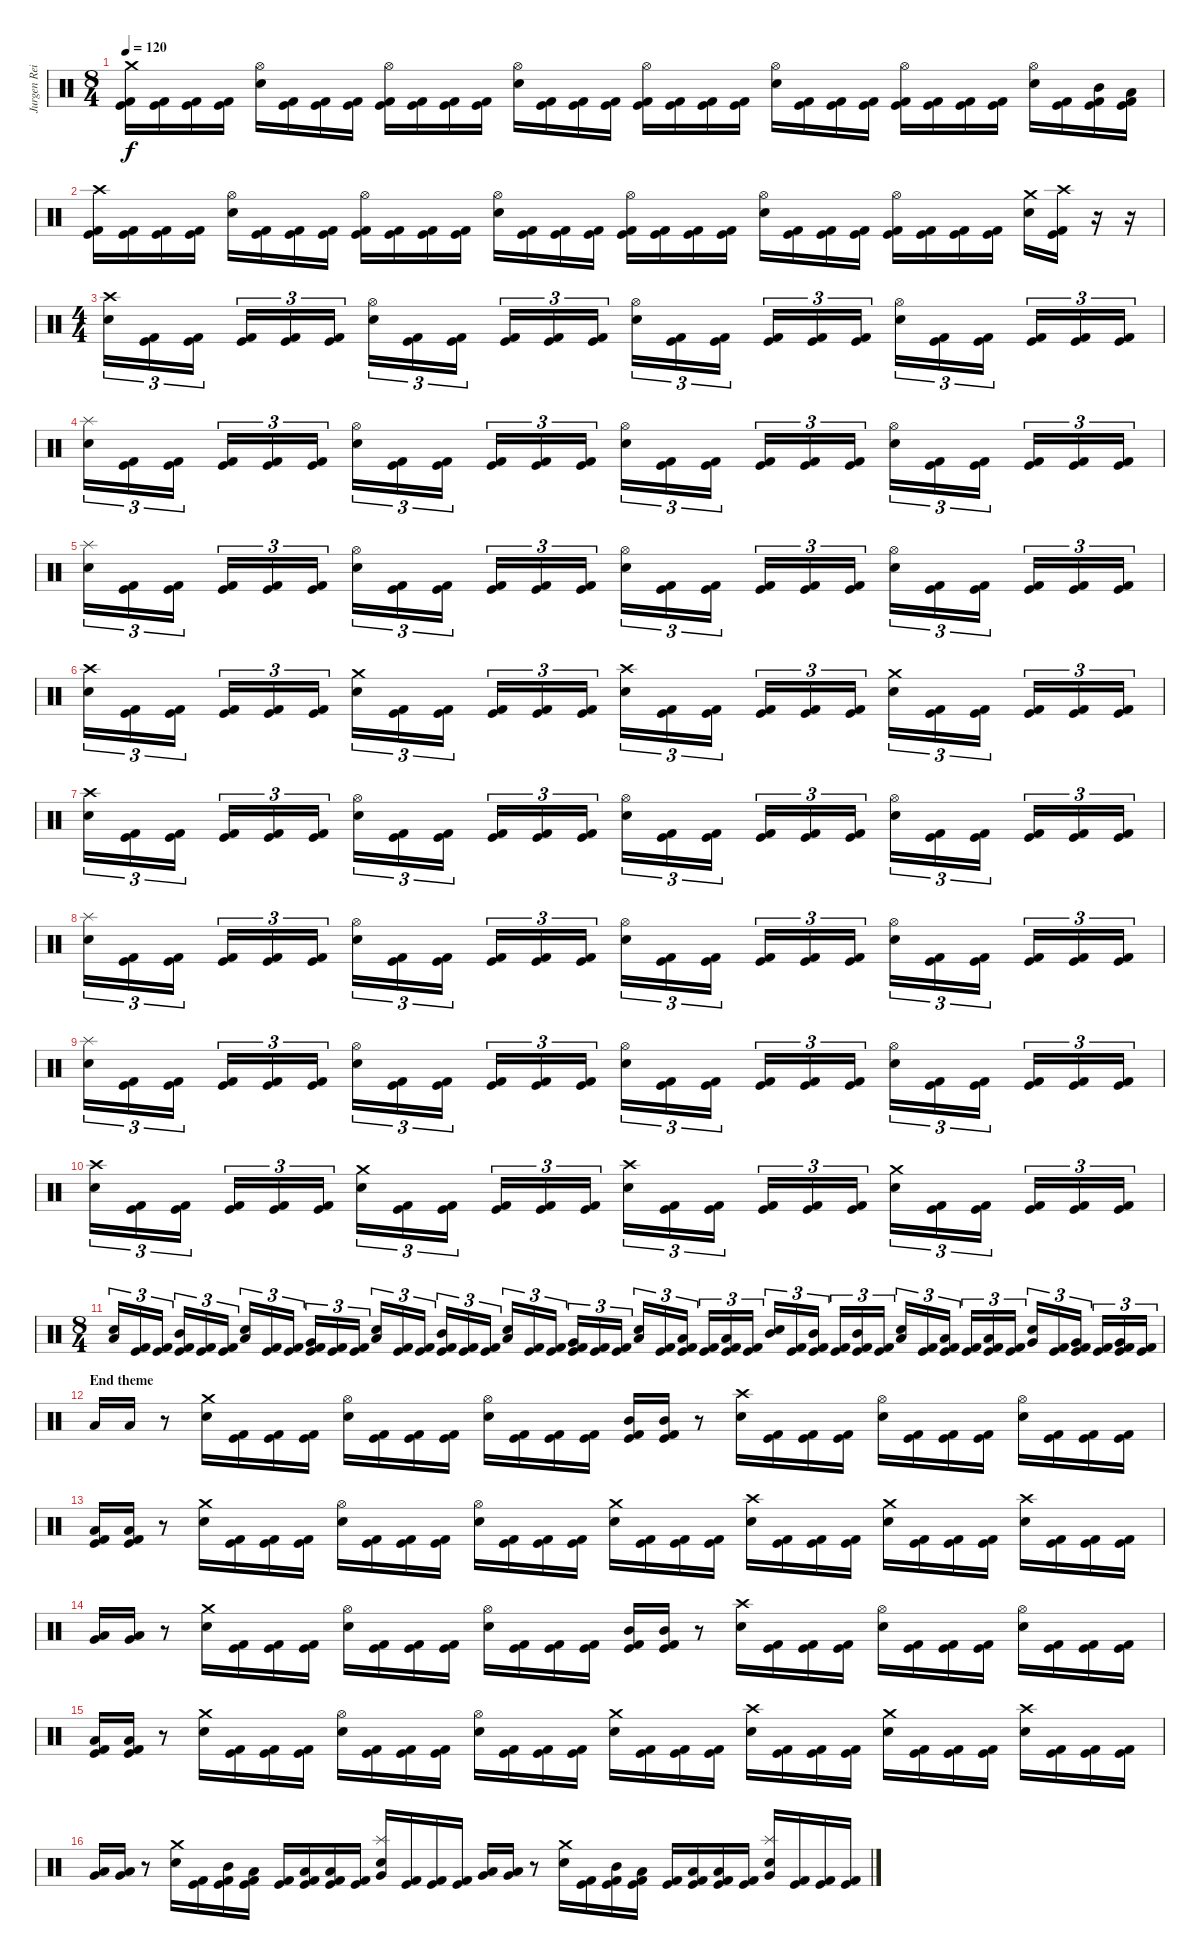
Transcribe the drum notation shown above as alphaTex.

\track ("Jurgen Reil" "Jurgen Rei") {instrument percussion}
\staff {score}
\articulation defaults
\ts (8 4)
\tempo 120
\clef neutral
\ks c
("Crash medium (hit)" "Kick (hit)" "Kick (hit) 2").16{dy f} ("Kick (hit)" "Kick (hit) 2").16 ("Kick (hit)" "Kick (hit) 2").16 ("Kick (hit)" "Kick (hit) 2").16 ("Hi-Hat (open)" "Electric Snare (hit)").16 ("Kick (hit)" "Kick (hit) 2").16 ("Kick (hit)" "Kick (hit) 2").16 ("Kick (hit)" "Kick (hit) 2").16 ("Hi-Hat (open)" "Kick (hit)" "Kick (hit) 2").16 ("Kick (hit)" "Kick (hit) 2").16 ("Kick (hit)" "Kick (hit) 2").16 ("Kick (hit)" "Kick (hit) 2").16 ("Hi-Hat (open)" "Electric Snare (hit)").16 ("Kick (hit)" "Kick (hit) 2").16 ("Kick (hit)" "Kick (hit) 2").16 ("Kick (hit)" "Kick (hit) 2").16 ("Hi-Hat (open)" "Kick (hit)" "Kick (hit) 2").16 ("Kick (hit)" "Kick (hit) 2").16 ("Kick (hit)" "Kick (hit) 2").16 ("Kick (hit)" "Kick (hit) 2").16 ("Hi-Hat (open)" "Electric Snare (hit)").16 ("Kick (hit)" "Kick (hit) 2").16 ("Kick (hit)" "Kick (hit) 2").16 ("Kick (hit)" "Kick (hit) 2").16 ("Hi-Hat (open)" "Kick (hit)" "Kick (hit) 2").16 ("Kick (hit)" "Kick (hit) 2").16 ("Kick (hit)" "Kick (hit) 2").16 ("Kick (hit)" "Kick (hit) 2").16 ("Hi-Hat (open)" "Electric Snare (hit)").16 ("Kick (hit)" "Kick (hit) 2").16 ("Mid Tom (hit)" "Kick (hit)" "Kick (hit) 2").16 ("Low Tom (hit)" "Kick (hit)" "Kick (hit) 2").16 |
("Crash high (hit)" "Kick (hit)" "Kick (hit) 2").16 ("Kick (hit)" "Kick (hit) 2").16 ("Kick (hit)" "Kick (hit) 2").16 ("Kick (hit)" "Kick (hit) 2").16 ("Hi-Hat (open)" "Electric Snare (hit)").16 ("Kick (hit)" "Kick (hit) 2").16 ("Kick (hit)" "Kick (hit) 2").16 ("Kick (hit)" "Kick (hit) 2").16 ("Hi-Hat (open)" "Kick (hit)" "Kick (hit) 2").16 ("Kick (hit)" "Kick (hit) 2").16 ("Kick (hit)" "Kick (hit) 2").16 ("Kick (hit)" "Kick (hit) 2").16 ("Hi-Hat (open)" "Electric Snare (hit)").16 ("Kick (hit)" "Kick (hit) 2").16 ("Kick (hit)" "Kick (hit) 2").16 ("Kick (hit)" "Kick (hit) 2").16 ("Hi-Hat (open)" "Kick (hit)" "Kick (hit) 2").16 ("Kick (hit)" "Kick (hit) 2").16 ("Kick (hit)" "Kick (hit) 2").16 ("Kick (hit)" "Kick (hit) 2").16 ("Hi-Hat (open)" "Electric Snare (hit)").16 ("Kick (hit)" "Kick (hit) 2").16 ("Kick (hit)" "Kick (hit) 2").16 ("Kick (hit)" "Kick (hit) 2").16 ("Hi-Hat (open)" "Kick (hit)" "Kick (hit) 2").16 ("Kick (hit)" "Kick (hit) 2").16 ("Kick (hit)" "Kick (hit) 2").16 ("Kick (hit)" "Kick (hit) 2").16 ("Crash medium (hit)" "Electric Snare (hit)").16 ("Crash high (hit)" "Kick (hit)" "Kick (hit) 2").16 r.16 r.16 |
\ts (4 4)
("Crash high (hit)" "Electric Snare (hit)").16{tu (3 2)} ("Kick (hit)" "Kick (hit) 2").16{tu (3 2)} ("Kick (hit)" "Kick (hit) 2").16{tu (3 2)} ("Kick (hit)" "Kick (hit) 2").16{tu (3 2)} ("Kick (hit)" "Kick (hit) 2").16{tu (3 2)} ("Kick (hit)" "Kick (hit) 2").16{tu (3 2)} ("Hi-Hat (open)" "Electric Snare (hit)").16{tu (3 2)} ("Kick (hit)" "Kick (hit) 2").16{tu (3 2)} ("Kick (hit)" "Kick (hit) 2").16{tu (3 2)} ("Kick (hit)" "Kick (hit) 2").16{tu (3 2)} ("Kick (hit)" "Kick (hit) 2").16{tu (3 2)} ("Kick (hit)" "Kick (hit) 2").16{tu (3 2)} ("Hi-Hat (open)" "Electric Snare (hit)").16{tu (3 2)} ("Kick (hit)" "Kick (hit) 2").16{tu (3 2)} ("Kick (hit)" "Kick (hit) 2").16{tu (3 2)} ("Kick (hit)" "Kick (hit) 2").16{tu (3 2)} ("Kick (hit)" "Kick (hit) 2").16{tu (3 2)} ("Kick (hit)" "Kick (hit) 2").16{tu (3 2)} ("Hi-Hat (open)" "Electric Snare (hit)").16{tu (3 2)} ("Kick (hit)" "Kick (hit) 2").16{tu (3 2)} ("Kick (hit)" "Kick (hit) 2").16{tu (3 2)} ("Kick (hit)" "Kick (hit) 2").16{tu (3 2)} ("Kick (hit)" "Kick (hit) 2").16{tu (3 2)} ("Kick (hit)" "Kick (hit) 2").16{tu (3 2)} |
("Splash (hit)" "Electric Snare (hit)").16{tu (3 2)} ("Kick (hit)" "Kick (hit) 2").16{tu (3 2)} ("Kick (hit)" "Kick (hit) 2").16{tu (3 2)} ("Kick (hit)" "Kick (hit) 2").16{tu (3 2)} ("Kick (hit)" "Kick (hit) 2").16{tu (3 2)} ("Kick (hit)" "Kick (hit) 2").16{tu (3 2)} ("Hi-Hat (open)" "Electric Snare (hit)").16{tu (3 2)} ("Kick (hit)" "Kick (hit) 2").16{tu (3 2)} ("Kick (hit)" "Kick (hit) 2").16{tu (3 2)} ("Kick (hit)" "Kick (hit) 2").16{tu (3 2)} ("Kick (hit)" "Kick (hit) 2").16{tu (3 2)} ("Kick (hit)" "Kick (hit) 2").16{tu (3 2)} ("Hi-Hat (open)" "Electric Snare (hit)").16{tu (3 2)} ("Kick (hit)" "Kick (hit) 2").16{tu (3 2)} ("Kick (hit)" "Kick (hit) 2").16{tu (3 2)} ("Kick (hit)" "Kick (hit) 2").16{tu (3 2)} ("Kick (hit)" "Kick (hit) 2").16{tu (3 2)} ("Kick (hit)" "Kick (hit) 2").16{tu (3 2)} ("Hi-Hat (open)" "Electric Snare (hit)").16{tu (3 2)} ("Kick (hit)" "Kick (hit) 2").16{tu (3 2)} ("Kick (hit)" "Kick (hit) 2").16{tu (3 2)} ("Kick (hit)" "Kick (hit) 2").16{tu (3 2)} ("Kick (hit)" "Kick (hit) 2").16{tu (3 2)} ("Kick (hit)" "Kick (hit) 2").16{tu (3 2)} |
("Splash (hit)" "Electric Snare (hit)").16{tu (3 2)} ("Kick (hit)" "Kick (hit) 2").16{tu (3 2)} ("Kick (hit)" "Kick (hit) 2").16{tu (3 2)} ("Kick (hit)" "Kick (hit) 2").16{tu (3 2)} ("Kick (hit)" "Kick (hit) 2").16{tu (3 2)} ("Kick (hit)" "Kick (hit) 2").16{tu (3 2)} ("Hi-Hat (open)" "Electric Snare (hit)").16{tu (3 2)} ("Kick (hit)" "Kick (hit) 2").16{tu (3 2)} ("Kick (hit)" "Kick (hit) 2").16{tu (3 2)} ("Kick (hit)" "Kick (hit) 2").16{tu (3 2)} ("Kick (hit)" "Kick (hit) 2").16{tu (3 2)} ("Kick (hit)" "Kick (hit) 2").16{tu (3 2)} ("Hi-Hat (open)" "Electric Snare (hit)").16{tu (3 2)} ("Kick (hit)" "Kick (hit) 2").16{tu (3 2)} ("Kick (hit)" "Kick (hit) 2").16{tu (3 2)} ("Kick (hit)" "Kick (hit) 2").16{tu (3 2)} ("Kick (hit)" "Kick (hit) 2").16{tu (3 2)} ("Kick (hit)" "Kick (hit) 2").16{tu (3 2)} ("Hi-Hat (open)" "Electric Snare (hit)").16{tu (3 2)} ("Kick (hit)" "Kick (hit) 2").16{tu (3 2)} ("Kick (hit)" "Kick (hit) 2").16{tu (3 2)} ("Kick (hit)" "Kick (hit) 2").16{tu (3 2)} ("Kick (hit)" "Kick (hit) 2").16{tu (3 2)} ("Kick (hit)" "Kick (hit) 2").16{tu (3 2)} |
("Crash high (hit)" "Electric Snare (hit)").16{tu (3 2)} ("Kick (hit)" "Kick (hit) 2").16{tu (3 2)} ("Kick (hit)" "Kick (hit) 2").16{tu (3 2)} ("Kick (hit)" "Kick (hit) 2").16{tu (3 2)} ("Kick (hit)" "Kick (hit) 2").16{tu (3 2)} ("Kick (hit)" "Kick (hit) 2").16{tu (3 2)} ("Crash medium (hit)" "Electric Snare (hit)").16{tu (3 2)} ("Kick (hit)" "Kick (hit) 2").16{tu (3 2)} ("Kick (hit)" "Kick (hit) 2").16{tu (3 2)} ("Kick (hit)" "Kick (hit) 2").16{tu (3 2)} ("Kick (hit)" "Kick (hit) 2").16{tu (3 2)} ("Kick (hit)" "Kick (hit) 2").16{tu (3 2)} ("Crash high (hit)" "Electric Snare (hit)").16{tu (3 2)} ("Kick (hit)" "Kick (hit) 2").16{tu (3 2)} ("Kick (hit)" "Kick (hit) 2").16{tu (3 2)} ("Kick (hit)" "Kick (hit) 2").16{tu (3 2)} ("Kick (hit)" "Kick (hit) 2").16{tu (3 2)} ("Kick (hit)" "Kick (hit) 2").16{tu (3 2)} ("Crash medium (hit)" "Electric Snare (hit)").16{tu (3 2)} ("Kick (hit)" "Kick (hit) 2").16{tu (3 2)} ("Kick (hit)" "Kick (hit) 2").16{tu (3 2)} ("Kick (hit)" "Kick (hit) 2").16{tu (3 2)} ("Kick (hit)" "Kick (hit) 2").16{tu (3 2)} ("Kick (hit)" "Kick (hit) 2").16{tu (3 2)} |
("Crash high (hit)" "Electric Snare (hit)").16{tu (3 2)} ("Kick (hit)" "Kick (hit) 2").16{tu (3 2)} ("Kick (hit)" "Kick (hit) 2").16{tu (3 2)} ("Kick (hit)" "Kick (hit) 2").16{tu (3 2)} ("Kick (hit)" "Kick (hit) 2").16{tu (3 2)} ("Kick (hit)" "Kick (hit) 2").16{tu (3 2)} ("Hi-Hat (open)" "Electric Snare (hit)").16{tu (3 2)} ("Kick (hit)" "Kick (hit) 2").16{tu (3 2)} ("Kick (hit)" "Kick (hit) 2").16{tu (3 2)} ("Kick (hit)" "Kick (hit) 2").16{tu (3 2)} ("Kick (hit)" "Kick (hit) 2").16{tu (3 2)} ("Kick (hit)" "Kick (hit) 2").16{tu (3 2)} ("Hi-Hat (open)" "Electric Snare (hit)").16{tu (3 2)} ("Kick (hit)" "Kick (hit) 2").16{tu (3 2)} ("Kick (hit)" "Kick (hit) 2").16{tu (3 2)} ("Kick (hit)" "Kick (hit) 2").16{tu (3 2)} ("Kick (hit)" "Kick (hit) 2").16{tu (3 2)} ("Kick (hit)" "Kick (hit) 2").16{tu (3 2)} ("Hi-Hat (open)" "Electric Snare (hit)").16{tu (3 2)} ("Kick (hit)" "Kick (hit) 2").16{tu (3 2)} ("Kick (hit)" "Kick (hit) 2").16{tu (3 2)} ("Kick (hit)" "Kick (hit) 2").16{tu (3 2)} ("Kick (hit)" "Kick (hit) 2").16{tu (3 2)} ("Kick (hit)" "Kick (hit) 2").16{tu (3 2)} |
("Splash (hit)" "Electric Snare (hit)").16{tu (3 2)} ("Kick (hit)" "Kick (hit) 2").16{tu (3 2)} ("Kick (hit)" "Kick (hit) 2").16{tu (3 2)} ("Kick (hit)" "Kick (hit) 2").16{tu (3 2)} ("Kick (hit)" "Kick (hit) 2").16{tu (3 2)} ("Kick (hit)" "Kick (hit) 2").16{tu (3 2)} ("Hi-Hat (open)" "Electric Snare (hit)").16{tu (3 2)} ("Kick (hit)" "Kick (hit) 2").16{tu (3 2)} ("Kick (hit)" "Kick (hit) 2").16{tu (3 2)} ("Kick (hit)" "Kick (hit) 2").16{tu (3 2)} ("Kick (hit)" "Kick (hit) 2").16{tu (3 2)} ("Kick (hit)" "Kick (hit) 2").16{tu (3 2)} ("Hi-Hat (open)" "Electric Snare (hit)").16{tu (3 2)} ("Kick (hit)" "Kick (hit) 2").16{tu (3 2)} ("Kick (hit)" "Kick (hit) 2").16{tu (3 2)} ("Kick (hit)" "Kick (hit) 2").16{tu (3 2)} ("Kick (hit)" "Kick (hit) 2").16{tu (3 2)} ("Kick (hit)" "Kick (hit) 2").16{tu (3 2)} ("Hi-Hat (open)" "Electric Snare (hit)").16{tu (3 2)} ("Kick (hit)" "Kick (hit) 2").16{tu (3 2)} ("Kick (hit)" "Kick (hit) 2").16{tu (3 2)} ("Kick (hit)" "Kick (hit) 2").16{tu (3 2)} ("Kick (hit)" "Kick (hit) 2").16{tu (3 2)} ("Kick (hit)" "Kick (hit) 2").16{tu (3 2)} |
("Splash (hit)" "Electric Snare (hit)").16{tu (3 2)} ("Kick (hit)" "Kick (hit) 2").16{tu (3 2)} ("Kick (hit)" "Kick (hit) 2").16{tu (3 2)} ("Kick (hit)" "Kick (hit) 2").16{tu (3 2)} ("Kick (hit)" "Kick (hit) 2").16{tu (3 2)} ("Kick (hit)" "Kick (hit) 2").16{tu (3 2)} ("Hi-Hat (open)" "Electric Snare (hit)").16{tu (3 2)} ("Kick (hit)" "Kick (hit) 2").16{tu (3 2)} ("Kick (hit)" "Kick (hit) 2").16{tu (3 2)} ("Kick (hit)" "Kick (hit) 2").16{tu (3 2)} ("Kick (hit)" "Kick (hit) 2").16{tu (3 2)} ("Kick (hit)" "Kick (hit) 2").16{tu (3 2)} ("Hi-Hat (open)" "Electric Snare (hit)").16{tu (3 2)} ("Kick (hit)" "Kick (hit) 2").16{tu (3 2)} ("Kick (hit)" "Kick (hit) 2").16{tu (3 2)} ("Kick (hit)" "Kick (hit) 2").16{tu (3 2)} ("Kick (hit)" "Kick (hit) 2").16{tu (3 2)} ("Kick (hit)" "Kick (hit) 2").16{tu (3 2)} ("Hi-Hat (open)" "Electric Snare (hit)").16{tu (3 2)} ("Kick (hit)" "Kick (hit) 2").16{tu (3 2)} ("Kick (hit)" "Kick (hit) 2").16{tu (3 2)} ("Kick (hit)" "Kick (hit) 2").16{tu (3 2)} ("Kick (hit)" "Kick (hit) 2").16{tu (3 2)} ("Kick (hit)" "Kick (hit) 2").16{tu (3 2)} |
("Crash high (hit)" "Electric Snare (hit)").16{tu (3 2)} ("Kick (hit)" "Kick (hit) 2").16{tu (3 2)} ("Kick (hit)" "Kick (hit) 2").16{tu (3 2)} ("Kick (hit)" "Kick (hit) 2").16{tu (3 2)} ("Kick (hit)" "Kick (hit) 2").16{tu (3 2)} ("Kick (hit)" "Kick (hit) 2").16{tu (3 2)} ("Crash medium (hit)" "Electric Snare (hit)").16{tu (3 2)} ("Kick (hit)" "Kick (hit) 2").16{tu (3 2)} ("Kick (hit)" "Kick (hit) 2").16{tu (3 2)} ("Kick (hit)" "Kick (hit) 2").16{tu (3 2)} ("Kick (hit)" "Kick (hit) 2").16{tu (3 2)} ("Kick (hit)" "Kick (hit) 2").16{tu (3 2)} ("Crash high (hit)" "Electric Snare (hit)").16{tu (3 2)} ("Kick (hit)" "Kick (hit) 2").16{tu (3 2)} ("Kick (hit)" "Kick (hit) 2").16{tu (3 2)} ("Kick (hit)" "Kick (hit) 2").16{tu (3 2)} ("Kick (hit)" "Kick (hit) 2").16{tu (3 2)} ("Kick (hit)" "Kick (hit) 2").16{tu (3 2)} ("Crash medium (hit)" "Electric Snare (hit)").16{tu (3 2)} ("Kick (hit)" "Kick (hit) 2").16{tu (3 2)} ("Kick (hit)" "Kick (hit) 2").16{tu (3 2)} ("Kick (hit)" "Kick (hit) 2").16{tu (3 2)} ("Kick (hit)" "Kick (hit) 2").16{tu (3 2)} ("Kick (hit)" "Kick (hit) 2").16{tu (3 2)} |
\ts (8 4)
("Low Tom (hit)" "Electric Snare (hit)").16{tu (3 2)} ("Kick (hit)" "Kick (hit) 2").16{tu (3 2)} ("Kick (hit)" "Kick (hit) 2").16{tu (3 2)} ("Mid Tom (hit)" "Kick (hit)" "Kick (hit) 2").16{tu (3 2)} ("Kick (hit)" "Kick (hit) 2").16{tu (3 2)} ("Kick (hit)" "Kick (hit) 2").16{tu (3 2)} ("Low Tom (hit)" "Electric Snare (hit)").16{tu (3 2)} ("Kick (hit)" "Kick (hit) 2").16{tu (3 2)} ("Kick (hit)" "Kick (hit) 2").16{tu (3 2)} ("Very Low Tom (hit)" "Kick (hit)" "Kick (hit) 2").16{tu (3 2)} ("Kick (hit)" "Kick (hit) 2").16{tu (3 2)} ("Kick (hit)" "Kick (hit) 2").16{tu (3 2)} ("Low Tom (hit)" "Electric Snare (hit)").16{tu (3 2)} ("Kick (hit)" "Kick (hit) 2").16{tu (3 2)} ("Kick (hit)" "Kick (hit) 2").16{tu (3 2)} ("Mid Tom (hit)" "Kick (hit)" "Kick (hit) 2").16{tu (3 2)} ("Kick (hit)" "Kick (hit) 2").16{tu (3 2)} ("Kick (hit)" "Kick (hit) 2").16{tu (3 2)} ("Low Tom (hit)" "Electric Snare (hit)").16{tu (3 2)} ("Kick (hit)" "Kick (hit) 2").16{tu (3 2)} ("Kick (hit)" "Kick (hit) 2").16{tu (3 2)} ("Very Low Tom (hit)" "Kick (hit)" "Kick (hit) 2").16{tu (3 2)} ("Kick (hit)" "Kick (hit) 2").16{tu (3 2)} ("Kick (hit)" "Kick (hit) 2").16{tu (3 2)} ("Low Tom (hit)" "Electric Snare (hit)").16{tu (3 2)} ("Kick (hit)" "Kick (hit) 2").16{tu (3 2)} ("Low Tom (hit)" "Kick (hit)" "Kick (hit) 2").16{tu (3 2)} ("Kick (hit)" "Kick (hit) 2").16{tu (3 2)} ("Low Tom (hit)" "Kick (hit)" "Kick (hit) 2").16{tu (3 2)} ("Kick (hit)" "Kick (hit) 2").16{tu (3 2)} ("Mid Tom (hit)" "Electric Snare (hit)").16{tu (3 2)} ("Kick (hit)" "Kick (hit) 2").16{tu (3 2)} ("Mid Tom (hit)" "Kick (hit)" "Kick (hit) 2").16{tu (3 2)} ("Kick (hit)" "Kick (hit) 2").16{tu (3 2)} ("Mid Tom (hit)" "Kick (hit)" "Kick (hit) 2").16{tu (3 2)} ("Kick (hit)" "Kick (hit) 2").16{tu (3 2)} ("Low Tom (hit)" "Electric Snare (hit)").16{tu (3 2)} ("Kick (hit)" "Kick (hit) 2").16{tu (3 2)} ("Low Tom (hit)" "Kick (hit)" "Kick (hit) 2").16{tu (3 2)} ("Kick (hit)" "Kick (hit) 2").16{tu (3 2)} ("Low Tom (hit)" "Kick (hit)" "Kick (hit) 2").16{tu (3 2)} ("Kick (hit)" "Kick (hit) 2").16{tu (3 2)} ("Very Low Tom (hit)" "Electric Snare (hit)").16{tu (3 2)} ("Kick (hit)" "Kick (hit) 2").16{tu (3 2)} ("Very Low Tom (hit)" "Kick (hit)" "Kick (hit) 2").16{tu (3 2)} ("Kick (hit)" "Kick (hit) 2").16{tu (3 2)} ("Very Low Tom (hit)" "Kick (hit)" "Kick (hit) 2").16{tu (3 2)} ("Kick (hit)" "Kick (hit) 2").16{tu (3 2)} |
\section ("" "End theme")
"Low Tom (hit)".16 "Low Tom (hit)".16 r.8 ("Crash medium (hit)" "Electric Snare (hit)").16 ("Kick (hit)" "Kick (hit) 2").16 ("Kick (hit)" "Kick (hit) 2").16 ("Kick (hit)" "Kick (hit) 2").16 ("Hi-Hat (open)" "Electric Snare (hit)").16 ("Kick (hit)" "Kick (hit) 2").16 ("Kick (hit)" "Kick (hit) 2").16 ("Kick (hit)" "Kick (hit) 2").16 ("Hi-Hat (open)" "Electric Snare (hit)").16 ("Kick (hit)" "Kick (hit) 2").16 ("Kick (hit)" "Kick (hit) 2").16 ("Kick (hit)" "Kick (hit) 2").16 ("Mid Tom (hit)" "Kick (hit)" "Kick (hit) 2").16 ("Mid Tom (hit)" "Kick (hit)" "Kick (hit) 2").16 r.8 ("Crash high (hit)" "Electric Snare (hit)").16 ("Kick (hit)" "Kick (hit) 2").16 ("Kick (hit)" "Kick (hit) 2").16 ("Kick (hit)" "Kick (hit) 2").16 ("Hi-Hat (open)" "Electric Snare (hit)").16 ("Kick (hit)" "Kick (hit) 2").16 ("Kick (hit)" "Kick (hit) 2").16 ("Kick (hit)" "Kick (hit) 2").16 ("Hi-Hat (open)" "Electric Snare (hit)").16 ("Kick (hit)" "Kick (hit) 2").16 ("Kick (hit)" "Kick (hit) 2").16 ("Kick (hit)" "Kick (hit) 2").16 |
("Low Tom (hit)" "Kick (hit)" "Kick (hit) 2").16 ("Low Tom (hit)" "Kick (hit)" "Kick (hit) 2").16 r.8 ("Crash medium (hit)" "Electric Snare (hit)").16 ("Kick (hit)" "Kick (hit) 2").16 ("Kick (hit)" "Kick (hit) 2").16 ("Kick (hit)" "Kick (hit) 2").16 ("Hi-Hat (open)" "Electric Snare (hit)").16 ("Kick (hit)" "Kick (hit) 2").16 ("Kick (hit)" "Kick (hit) 2").16 ("Kick (hit)" "Kick (hit) 2").16 ("Hi-Hat (open)" "Electric Snare (hit)").16 ("Kick (hit)" "Kick (hit) 2").16 ("Kick (hit)" "Kick (hit) 2").16 ("Kick (hit)" "Kick (hit) 2").16 ("Crash medium (hit)" "Electric Snare (hit)").16 ("Kick (hit)" "Kick (hit) 2").16 ("Kick (hit)" "Kick (hit) 2").16 ("Kick (hit)" "Kick (hit) 2").16 ("Crash high (hit)" "Electric Snare (hit)").16 ("Kick (hit)" "Kick (hit) 2").16 ("Kick (hit)" "Kick (hit) 2").16 ("Kick (hit)" "Kick (hit) 2").16 ("Crash medium (hit)" "Electric Snare (hit)").16 ("Kick (hit)" "Kick (hit) 2").16 ("Kick (hit)" "Kick (hit) 2").16 ("Kick (hit)" "Kick (hit) 2").16 ("Crash high (hit)" "Electric Snare (hit)").16 ("Kick (hit)" "Kick (hit) 2").16 ("Kick (hit)" "Kick (hit) 2").16 ("Kick (hit)" "Kick (hit) 2").16 |
("Low Tom (hit)" "Very Low Tom (hit)").16 ("Low Tom (hit)" "Very Low Tom (hit)").16 r.8 ("Crash medium (hit)" "Electric Snare (hit)").16 ("Kick (hit)" "Kick (hit) 2").16 ("Kick (hit)" "Kick (hit) 2").16 ("Kick (hit)" "Kick (hit) 2").16 ("Hi-Hat (open)" "Electric Snare (hit)").16 ("Kick (hit)" "Kick (hit) 2").16 ("Kick (hit)" "Kick (hit) 2").16 ("Kick (hit)" "Kick (hit) 2").16 ("Hi-Hat (open)" "Electric Snare (hit)").16 ("Kick (hit)" "Kick (hit) 2").16 ("Kick (hit)" "Kick (hit) 2").16 ("Kick (hit)" "Kick (hit) 2").16 ("Mid Tom (hit)" "Kick (hit)" "Kick (hit) 2").16 ("Mid Tom (hit)" "Kick (hit)" "Kick (hit) 2").16 r.8 ("Crash high (hit)" "Electric Snare (hit)").16 ("Kick (hit)" "Kick (hit) 2").16 ("Kick (hit)" "Kick (hit) 2").16 ("Kick (hit)" "Kick (hit) 2").16 ("Hi-Hat (open)" "Electric Snare (hit)").16 ("Kick (hit)" "Kick (hit) 2").16 ("Kick (hit)" "Kick (hit) 2").16 ("Kick (hit)" "Kick (hit) 2").16 ("Hi-Hat (open)" "Electric Snare (hit)").16 ("Kick (hit)" "Kick (hit) 2").16 ("Kick (hit)" "Kick (hit) 2").16 ("Kick (hit)" "Kick (hit) 2").16 |
("Low Tom (hit)" "Kick (hit)" "Kick (hit) 2").16 ("Low Tom (hit)" "Kick (hit)" "Kick (hit) 2").16 r.8 ("Crash medium (hit)" "Electric Snare (hit)").16 ("Kick (hit)" "Kick (hit) 2").16 ("Kick (hit)" "Kick (hit) 2").16 ("Kick (hit)" "Kick (hit) 2").16 ("Hi-Hat (open)" "Electric Snare (hit)").16 ("Kick (hit)" "Kick (hit) 2").16 ("Kick (hit)" "Kick (hit) 2").16 ("Kick (hit)" "Kick (hit) 2").16 ("Hi-Hat (open)" "Electric Snare (hit)").16 ("Kick (hit)" "Kick (hit) 2").16 ("Kick (hit)" "Kick (hit) 2").16 ("Kick (hit)" "Kick (hit) 2").16 ("Crash medium (hit)" "Electric Snare (hit)").16 ("Kick (hit)" "Kick (hit) 2").16 ("Kick (hit)" "Kick (hit) 2").16 ("Kick (hit)" "Kick (hit) 2").16 ("Crash high (hit)" "Electric Snare (hit)").16 ("Kick (hit)" "Kick (hit) 2").16 ("Kick (hit)" "Kick (hit) 2").16 ("Kick (hit)" "Kick (hit) 2").16 ("Crash medium (hit)" "Electric Snare (hit)").16 ("Kick (hit)" "Kick (hit) 2").16 ("Kick (hit)" "Kick (hit) 2").16 ("Kick (hit)" "Kick (hit) 2").16 ("Crash high (hit)" "Electric Snare (hit)").16 ("Kick (hit)" "Kick (hit) 2").16 ("Kick (hit)" "Kick (hit) 2").16 ("Kick (hit)" "Kick (hit) 2").16 |
("Low Tom (hit)" "Very Low Tom (hit)").16 ("Low Tom (hit)" "Very Low Tom (hit)").16 r.8 ("Crash medium (hit)" "Electric Snare (hit)").16 ("Kick (hit)" "Kick (hit) 2").16 ("Mid Tom (hit)" "Kick (hit)" "Kick (hit) 2").16 ("Low Tom (hit)" "Kick (hit)" "Kick (hit) 2").16 ("Kick (hit)" "Kick (hit) 2").16 ("Low Tom (hit)" "Kick (hit)" "Kick (hit) 2").16 ("Low Tom (hit)" "Kick (hit)" "Kick (hit) 2").16 ("Kick (hit)" "Kick (hit) 2").16 ("Splash (hit)" "Very Low Tom (hit)" "Electric Snare (hit)").16 ("Kick (hit)" "Kick (hit) 2").16 ("Kick (hit)" "Kick (hit) 2").16 ("Kick (hit)" "Kick (hit) 2").16 ("Low Tom (hit)" "Very Low Tom (hit)").16 ("Low Tom (hit)" "Very Low Tom (hit)").16 r.8 ("Crash medium (hit)" "Electric Snare (hit)").16 ("Kick (hit)" "Kick (hit) 2").16 ("Mid Tom (hit)" "Kick (hit)" "Kick (hit) 2").16 ("Low Tom (hit)" "Kick (hit)" "Kick (hit) 2").16 ("Kick (hit)" "Kick (hit) 2").16 ("Low Tom (hit)" "Kick (hit)" "Kick (hit) 2").16 ("Low Tom (hit)" "Kick (hit)" "Kick (hit) 2").16 ("Kick (hit)" "Kick (hit) 2").16 ("Splash (hit)" "Very Low Tom (hit)" "Electric Snare (hit)").16 ("Kick (hit)" "Kick (hit) 2").16 ("Kick (hit)" "Kick (hit) 2").16 ("Kick (hit)" "Kick (hit) 2").16
